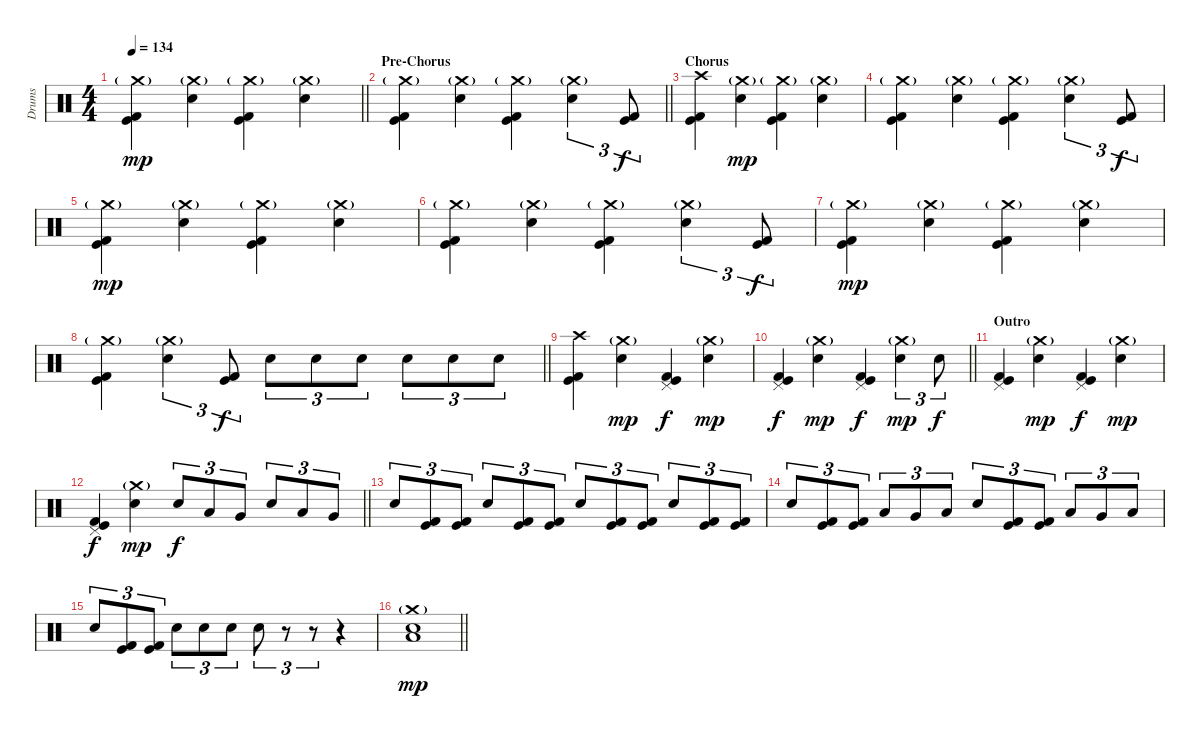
\track ("Drums" "Drums") {instrument percussion}
\staff {score}
\articulation defaults
\ts (4 4)
\tempo 134
\clef neutral
\barLineRight lightlight
\ks c
("Crash medium (hit)"{g} "Kick (hit)" "Kick (hit) 2").4{dy mp} ("Crash medium (hit)"{g} "Electric Snare (hit)").4 ("Crash medium (hit)"{g} "Kick (hit)" "Kick (hit) 2").4 ("Crash medium (hit)"{g} "Electric Snare (hit)").4 |
\section ("" "Pre-Chorus")
\barLineRight lightlight
("Crash medium (hit)"{g} "Kick (hit)" "Kick (hit) 2").4 ("Crash medium (hit)"{g} "Electric Snare (hit)").4 ("Crash medium (hit)"{g} "Kick (hit)" "Kick (hit) 2").4 ("Crash medium (hit)"{g} "Electric Snare (hit)").4{tu (3 2)} ("Kick (hit)" "Kick (hit) 2").8{tu (3 2) dy f} |
\section ("" "Chorus")
("Crash high (hit)" "Kick (hit)" "Kick (hit) 2").4 ("Crash medium (hit)"{g} "Electric Snare (hit)").4{dy mp} ("Crash medium (hit)"{g} "Kick (hit)" "Kick (hit) 2").4 ("Crash medium (hit)"{g} "Electric Snare (hit)").4 |
("Crash medium (hit)"{g} "Kick (hit)" "Kick (hit) 2").4 ("Crash medium (hit)"{g} "Electric Snare (hit)").4 ("Crash medium (hit)"{g} "Kick (hit)" "Kick (hit) 2").4 ("Crash medium (hit)"{g} "Electric Snare (hit)").4{tu (3 2)} ("Kick (hit)" "Kick (hit) 2").8{tu (3 2) dy f} |
("Crash medium (hit)"{g} "Kick (hit)" "Kick (hit) 2").4{dy mp} ("Crash medium (hit)"{g} "Electric Snare (hit)").4 ("Crash medium (hit)"{g} "Kick (hit)" "Kick (hit) 2").4 ("Crash medium (hit)"{g} "Electric Snare (hit)").4 |
("Crash medium (hit)"{g} "Kick (hit)" "Kick (hit) 2").4 ("Crash medium (hit)"{g} "Electric Snare (hit)").4 ("Crash medium (hit)"{g} "Kick (hit)" "Kick (hit) 2").4 ("Crash medium (hit)"{g} "Electric Snare (hit)").4{tu (3 2)} ("Kick (hit)" "Kick (hit) 2").8{tu (3 2) dy f} |
("Crash medium (hit)"{g} "Kick (hit)" "Kick (hit) 2").4{dy mp} ("Crash medium (hit)"{g} "Electric Snare (hit)").4 ("Crash medium (hit)"{g} "Kick (hit)" "Kick (hit) 2").4 ("Crash medium (hit)"{g} "Electric Snare (hit)").4 |
\barLineRight lightlight
("Crash medium (hit)"{g} "Kick (hit)" "Kick (hit) 2").4 ("Crash medium (hit)"{g} "Electric Snare (hit)").4{tu (3 2)} ("Kick (hit)" "Kick (hit) 2").8{tu (3 2) dy f} "Electric Snare (hit)".8{tu (3 2)} "Electric Snare (hit)".8{tu (3 2)} "Electric Snare (hit)".8{tu (3 2)} "Electric Snare (hit)".8{tu (3 2)} "Electric Snare (hit)".8{tu (3 2)} "Electric Snare (hit)".8{tu (3 2)} |
("Crash high (hit)" "Kick (hit)" "Kick (hit) 2").4 ("Crash medium (hit)"{g} "Electric Snare (hit)").4{dy mp} ("Pedal Hi-Hat (hit)" "Kick (hit)" "Kick (hit) 2").4{dy f} ("Crash medium (hit)"{g} "Electric Snare (hit)").4{dy mp} |
\barLineRight lightlight
("Pedal Hi-Hat (hit)" "Kick (hit)" "Kick (hit) 2").4{dy f} ("Crash medium (hit)"{g} "Electric Snare (hit)").4{dy mp} ("Pedal Hi-Hat (hit)" "Kick (hit)" "Kick (hit) 2").4{dy f} ("Crash medium (hit)"{g} "Electric Snare (hit)").4{tu (3 2) dy mp} "Electric Snare (hit)".8{tu (3 2) dy f} |
\section ("" "Outro")
("Pedal Hi-Hat (hit)" "Kick (hit)" "Kick (hit) 2").4 ("Crash medium (hit)"{g} "Electric Snare (hit)").4{dy mp} ("Pedal Hi-Hat (hit)" "Kick (hit)" "Kick (hit) 2").4{dy f} ("Crash medium (hit)"{g} "Electric Snare (hit)").4{dy mp} |
\barLineRight lightlight
("Pedal Hi-Hat (hit)" "Kick (hit)" "Kick (hit) 2").4{dy f} ("Crash medium (hit)"{g} "Electric Snare (hit)").4{dy mp} "Electric Snare (hit)".8{tu (3 2) dy f} "Low Tom (hit)".8{tu (3 2)} "Very Low Tom (hit)".8{tu (3 2)} "Electric Snare (hit)".8{tu (3 2)} "Low Tom (hit)".8{tu (3 2)} "Very Low Tom (hit)".8{tu (3 2)} |
\section ("" "")
"Electric Snare (hit)".8{tu (3 2)} ("Kick (hit)" "Kick (hit) 2").8{tu (3 2)} ("Kick (hit)" "Kick (hit) 2").8{tu (3 2)} "Electric Snare (hit)".8{tu (3 2)} ("Kick (hit)" "Kick (hit) 2").8{tu (3 2)} ("Kick (hit)" "Kick (hit) 2").8{tu (3 2)} "Electric Snare (hit)".8{tu (3 2)} ("Kick (hit)" "Kick (hit) 2").8{tu (3 2)} ("Kick (hit)" "Kick (hit) 2").8{tu (3 2)} "Electric Snare (hit)".8{tu (3 2)} ("Kick (hit)" "Kick (hit) 2").8{tu (3 2)} ("Kick (hit)" "Kick (hit) 2").8{tu (3 2)} |
"Electric Snare (hit)".8{tu (3 2)} ("Kick (hit)" "Kick (hit) 2").8{tu (3 2)} ("Kick (hit)" "Kick (hit) 2").8{tu (3 2)} "Low Tom (hit)".8{tu (3 2)} "Very Low Tom (hit)".8{tu (3 2)} "Low Floor Tom (hit)".8{tu (3 2)} "Electric Snare (hit)".8{tu (3 2)} ("Kick (hit)" "Kick (hit) 2").8{tu (3 2)} ("Kick (hit)" "Kick (hit) 2").8{tu (3 2)} "Low Tom (hit)".8{tu (3 2)} "Very Low Tom (hit)".8{tu (3 2)} "Low Floor Tom (hit)".8{tu (3 2)} |
"Electric Snare (hit)".8{tu (3 2)} ("Kick (hit)" "Kick (hit) 2").8{tu (3 2)} ("Kick (hit)" "Kick (hit) 2").8{tu (3 2)} "Electric Snare (hit)".8{tu (3 2)} "Electric Snare (hit)".8{tu (3 2)} "Electric Snare (hit)".8{tu (3 2)} "Electric Snare (hit)".8{tu (3 2)} r.8{tu (3 2)} r.8{tu (3 2)} r.4 |
\barLineRight lightlight
("Crash medium (hit)"{g} "Electric Snare (hit)" "Low Floor Tom (hit)").1{dy mp}
